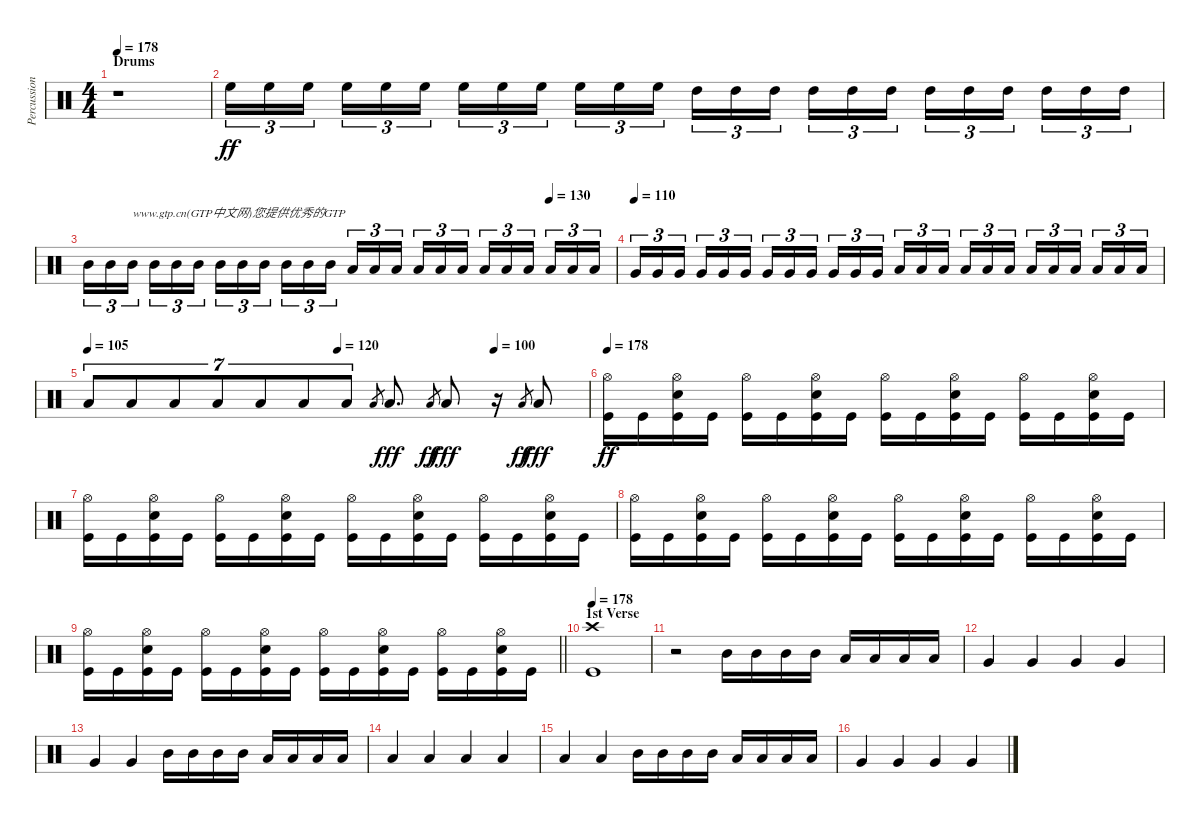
\track ("Percussion" "Percussion") {instrument percussion}
\staff {score}
\articulation defaults
\ts (4 4)
\section ("" "Drums")
\tempo 178
\tempo 140
\tempo 178
\clef neutral
\ks c
r.1{dy ff} |
"High Floor Tom (hit)".16{tu (3 2)} "High Floor Tom (hit)".16{tu (3 2)} "High Floor Tom (hit)".16{tu (3 2) beam splitsecondary} "High Floor Tom (hit)".16{tu (3 2)} "High Floor Tom (hit)".16{tu (3 2)} "High Floor Tom (hit)".16{tu (3 2)} "High Floor Tom (hit)".16{tu (3 2)} "High Floor Tom (hit)".16{tu (3 2)} "High Floor Tom (hit)".16{tu (3 2) beam splitsecondary} "High Floor Tom (hit)".16{tu (3 2)} "High Floor Tom (hit)".16{tu (3 2)} "High Floor Tom (hit)".16{tu (3 2)} "High Tom (hit)".16{tu (3 2)} "High Tom (hit)".16{tu (3 2)} "High Tom (hit)".16{tu (3 2) beam splitsecondary} "High Tom (hit)".16{tu (3 2)} "High Tom (hit)".16{tu (3 2)} "High Tom (hit)".16{tu (3 2)} "High Tom (hit)".16{tu (3 2)} "High Tom (hit)".16{tu (3 2)} "High Tom (hit)".16{tu (3 2) beam splitsecondary} "High Tom (hit)".16{tu (3 2)} "High Tom (hit)".16{tu (3 2)} "High Tom (hit)".16{tu (3 2)} |
\tempo (130 0.875)
"Mid Tom (hit)".16{tu (3 2)} "Mid Tom (hit)".16{tu (3 2)} "Mid Tom (hit)".16{tu (3 2) txt "www.gtp.cn(GTP中文网)您提供优秀的GTP" beam splitsecondary} "Mid Tom (hit)".16{tu (3 2)} "Mid Tom (hit)".16{tu (3 2)} "Mid Tom (hit)".16{tu (3 2)} "Mid Tom (hit)".16{tu (3 2)} "Mid Tom (hit)".16{tu (3 2)} "Mid Tom (hit)".16{tu (3 2) beam splitsecondary} "Mid Tom (hit)".16{tu (3 2)} "Mid Tom (hit)".16{tu (3 2)} "Mid Tom (hit)".16{tu (3 2)} "Low Tom (hit)".16{tu (3 2)} "Low Tom (hit)".16{tu (3 2)} "Low Tom (hit)".16{tu (3 2) beam splitsecondary} "Low Tom (hit)".16{tu (3 2)} "Low Tom (hit)".16{tu (3 2)} "Low Tom (hit)".16{tu (3 2)} "Low Tom (hit)".16{tu (3 2)} "Low Tom (hit)".16{tu (3 2)} "Low Tom (hit)".16{tu (3 2) beam splitsecondary} "Low Tom (hit)".16{tu (3 2)} "Low Tom (hit)".16{tu (3 2)} "Low Tom (hit)".16{tu (3 2)} |
\tempo (110)
"Very Low Tom (hit)".16{tu (3 2)} "Very Low Tom (hit)".16{tu (3 2)} "Very Low Tom (hit)".16{tu (3 2) beam splitsecondary} "Very Low Tom (hit)".16{tu (3 2)} "Very Low Tom (hit)".16{tu (3 2)} "Very Low Tom (hit)".16{tu (3 2)} "Very Low Tom (hit)".16{tu (3 2)} "Very Low Tom (hit)".16{tu (3 2)} "Very Low Tom (hit)".16{tu (3 2) beam splitsecondary} "Very Low Tom (hit)".16{tu (3 2)} "Very Low Tom (hit)".16{tu (3 2)} "Very Low Tom (hit)".16{tu (3 2)} "Low Floor Tom (hit)".16{tu (3 2)} "Low Floor Tom (hit)".16{tu (3 2)} "Low Floor Tom (hit)".16{tu (3 2) beam splitsecondary} "Low Floor Tom (hit)".16{tu (3 2)} "Low Floor Tom (hit)".16{tu (3 2)} "Low Floor Tom (hit)".16{tu (3 2)} "Low Floor Tom (hit)".16{tu (3 2)} "Low Floor Tom (hit)".16{tu (3 2)} "Low Floor Tom (hit)".16{tu (3 2) beam splitsecondary} "Low Floor Tom (hit)".16{tu (3 2)} "Low Floor Tom (hit)".16{tu (3 2)} "Low Floor Tom (hit)".16{tu (3 2)} |
\tempo 105
\tempo (120 0.49947916666666664)
\tempo (100 0.8119791666666667)
"Low Floor Tom (hit)".8{tu (7 4)} "Low Floor Tom (hit)".8{tu (7 4)} "Low Floor Tom (hit)".8{tu (7 4)} "Low Floor Tom (hit)".8{tu (7 4)} "Low Floor Tom (hit)".8{tu (7 4)} "Low Floor Tom (hit)".8{tu (7 4)} "Low Floor Tom (hit)".8{tu (7 4)} "Low Floor Tom (hit)".8{gr} "Low Floor Tom (hit)".8{d dy fff} "Low Floor Tom (hit)".8{gr dy ff} "Low Floor Tom (hit)".8{dy fff} r.16 "Low Floor Tom (hit)".8{gr dy ff} "Low Floor Tom (hit)".8{dy fff} |
\tempo 178
("Hi-Hat (open)" "Kick (hit)").16{dy ff} "Kick (hit)".16 ("Hi-Hat (open)" "Snare (hit) 2" "Kick (hit)").16 "Kick (hit)".16 ("Hi-Hat (open)" "Kick (hit)").16 "Kick (hit)".16 ("Hi-Hat (open)" "Snare (hit) 2" "Kick (hit)").16 "Kick (hit)".16 ("Hi-Hat (open)" "Kick (hit)").16 "Kick (hit)".16 ("Hi-Hat (open)" "Snare (hit) 2" "Kick (hit)").16 "Kick (hit)".16 ("Hi-Hat (open)" "Kick (hit)").16 "Kick (hit)".16 ("Hi-Hat (open)" "Snare (hit) 2" "Kick (hit)").16 "Kick (hit)".16 |
("Hi-Hat (open)" "Kick (hit)").16 "Kick (hit)".16 ("Hi-Hat (open)" "Snare (hit) 2" "Kick (hit)").16 "Kick (hit)".16 ("Hi-Hat (open)" "Kick (hit)").16 "Kick (hit)".16 ("Hi-Hat (open)" "Snare (hit) 2" "Kick (hit)").16 "Kick (hit)".16 ("Hi-Hat (open)" "Kick (hit)").16 "Kick (hit)".16 ("Hi-Hat (open)" "Snare (hit) 2" "Kick (hit)").16 "Kick (hit)".16 ("Hi-Hat (open)" "Kick (hit)").16 "Kick (hit)".16 ("Hi-Hat (open)" "Snare (hit) 2" "Kick (hit)").16 "Kick (hit)".16 |
("Hi-Hat (open)" "Kick (hit)").16 "Kick (hit)".16 ("Hi-Hat (open)" "Snare (hit) 2" "Kick (hit)").16 "Kick (hit)".16 ("Hi-Hat (open)" "Kick (hit)").16 "Kick (hit)".16 ("Hi-Hat (open)" "Snare (hit) 2" "Kick (hit)").16 "Kick (hit)".16 ("Hi-Hat (open)" "Kick (hit)").16 "Kick (hit)".16 ("Hi-Hat (open)" "Snare (hit) 2" "Kick (hit)").16 "Kick (hit)".16 ("Hi-Hat (open)" "Kick (hit)").16 "Kick (hit)".16 ("Hi-Hat (open)" "Snare (hit) 2" "Kick (hit)").16 "Kick (hit)".16 |
\barLineRight lightlight
("Hi-Hat (open)" "Kick (hit)").16 "Kick (hit)".16 ("Hi-Hat (open)" "Snare (hit) 2" "Kick (hit)").16 "Kick (hit)".16 ("Hi-Hat (open)" "Kick (hit)").16 "Kick (hit)".16 ("Hi-Hat (open)" "Snare (hit) 2" "Kick (hit)").16 "Kick (hit)".16 ("Hi-Hat (open)" "Kick (hit)").16 "Kick (hit)".16 ("Hi-Hat (open)" "Snare (hit) 2" "Kick (hit)").16 "Kick (hit)".16 ("Hi-Hat (open)" "Kick (hit)").16 "Kick (hit)".16 ("Hi-Hat (open)" "Snare (hit) 2" "Kick (hit)").16 "Kick (hit)".16 |
\section ("" "1st Verse")
\tempo 178
("Crash high (hit)" "Kick (hit)").1 |
r.2 "Mid Tom (hit)".16 "Mid Tom (hit)".16 "Mid Tom (hit)".16 "Mid Tom (hit)".16 "Low Tom (hit)".16 "Low Tom (hit)".16 "Low Tom (hit)".16 "Low Tom (hit)".16 |
"Very Low Tom (hit)".4 "Very Low Tom (hit)".4 "Very Low Tom (hit)".4 "Very Low Tom (hit)".4 |
"Very Low Tom (hit)".4 "Very Low Tom (hit)".4 "Mid Tom (hit)".16 "Mid Tom (hit)".16 "Mid Tom (hit)".16 "Mid Tom (hit)".16 "Low Tom (hit)".16 "Low Tom (hit)".16 "Low Tom (hit)".16 "Low Tom (hit)".16 |
"Low Floor Tom (hit)".4 "Low Floor Tom (hit)".4 "Low Floor Tom (hit)".4 "Low Floor Tom (hit)".4 |
"Low Floor Tom (hit)".4 "Low Floor Tom (hit)".4 "Mid Tom (hit)".16 "Mid Tom (hit)".16 "Mid Tom (hit)".16 "Mid Tom (hit)".16 "Low Tom (hit)".16 "Low Tom (hit)".16 "Low Tom (hit)".16 "Low Tom (hit)".16 |
"Very Low Tom (hit)".4 "Very Low Tom (hit)".4 "Very Low Tom (hit)".4 "Very Low Tom (hit)".4
